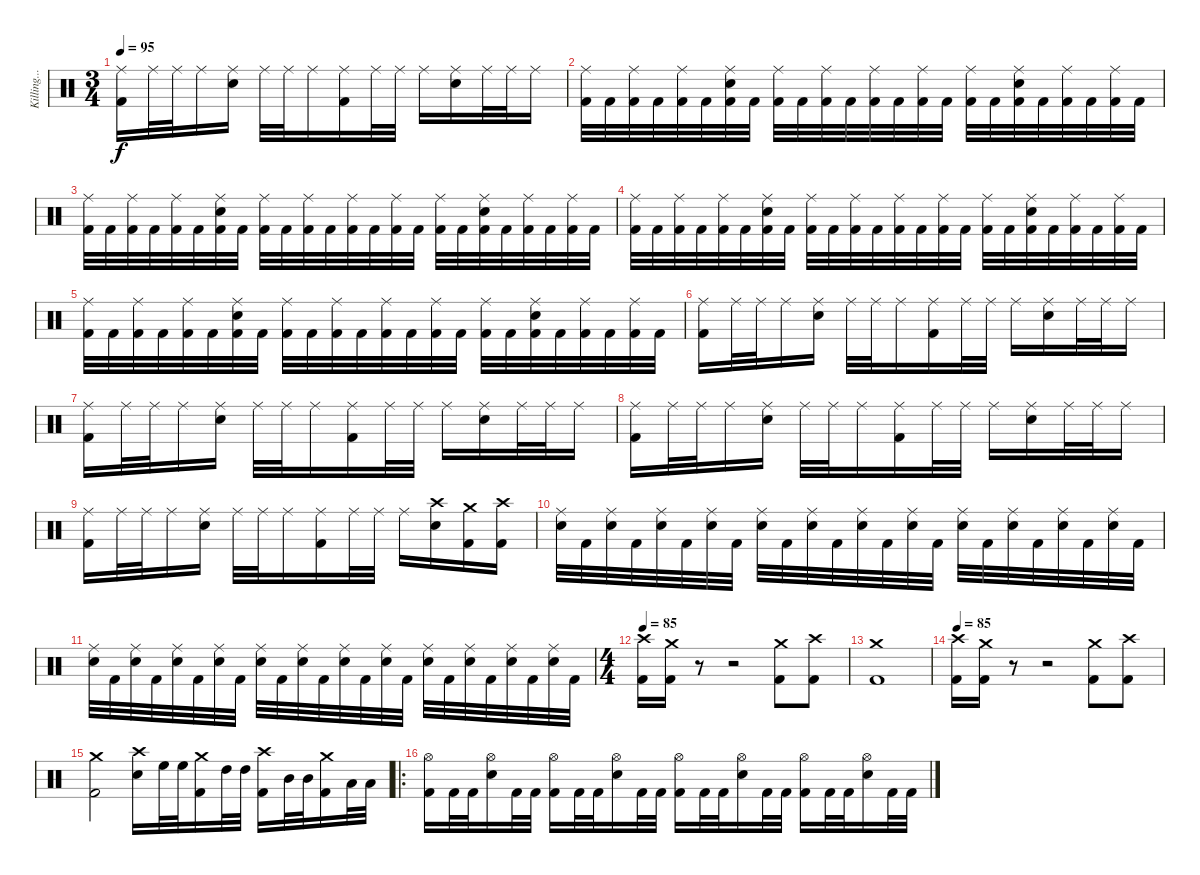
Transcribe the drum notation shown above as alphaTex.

\track ("Killing.....Is His Business" "Killing...") {instrument percussion}
\staff {score}
\articulation defaults
\ts (3 4)
\tempo 95
\clef neutral
\ks c
("Ride (middle)" "Kick (hit) 2").16{dy f} "Ride (middle)".32 "Ride (middle)".32 "Ride (middle)".16 ("Ride (middle)" "Snare (hit) 2").16 "Ride (middle)".32 "Ride (middle)".32 "Ride (middle)".16 ("Ride (middle)" "Kick (hit) 2").16 "Ride (middle)".32 "Ride (middle)".32 "Ride (middle)".16 ("Ride (middle)" "Snare (hit) 2").16 "Ride (middle)".32 "Ride (middle)".32 "Ride (middle)".16 |
("Ride (middle)" "Kick (hit) 2").32 "Kick (hit) 2".32 ("Ride (middle)" "Kick (hit) 2").32 "Kick (hit) 2".32 ("Ride (middle)" "Kick (hit) 2").32 "Kick (hit) 2".32 ("Ride (middle)" "Snare (hit) 2" "Kick (hit) 2").32 "Kick (hit) 2".32 ("Ride (middle)" "Kick (hit) 2").32 "Kick (hit) 2".32 ("Ride (middle)" "Kick (hit) 2").32 "Kick (hit) 2".32 ("Ride (middle)" "Kick (hit) 2").32 "Kick (hit) 2".32 ("Ride (middle)" "Kick (hit) 2").32 "Kick (hit) 2".32 ("Ride (middle)" "Kick (hit) 2").32 "Kick (hit) 2".32 ("Ride (middle)" "Snare (hit) 2" "Kick (hit) 2").32 "Kick (hit) 2".32 ("Ride (middle)" "Kick (hit) 2").32 "Kick (hit) 2".32 ("Ride (middle)" "Kick (hit) 2").32 "Kick (hit) 2".32 |
("Ride (middle)" "Kick (hit) 2").32 "Kick (hit) 2".32 ("Ride (middle)" "Kick (hit) 2").32 "Kick (hit) 2".32 ("Ride (middle)" "Kick (hit) 2").32 "Kick (hit) 2".32 ("Ride (middle)" "Snare (hit) 2" "Kick (hit) 2").32 "Kick (hit) 2".32 ("Ride (middle)" "Kick (hit) 2").32 "Kick (hit) 2".32 ("Ride (middle)" "Kick (hit) 2").32 "Kick (hit) 2".32 ("Ride (middle)" "Kick (hit) 2").32 "Kick (hit) 2".32 ("Ride (middle)" "Kick (hit) 2").32 "Kick (hit) 2".32 ("Ride (middle)" "Kick (hit) 2").32 "Kick (hit) 2".32 ("Ride (middle)" "Snare (hit) 2" "Kick (hit) 2").32 "Kick (hit) 2".32 ("Ride (middle)" "Kick (hit) 2").32 "Kick (hit) 2".32 ("Ride (middle)" "Kick (hit) 2").32 "Kick (hit) 2".32 |
("Ride (middle)" "Kick (hit) 2").32 "Kick (hit) 2".32 ("Ride (middle)" "Kick (hit) 2").32 "Kick (hit) 2".32 ("Ride (middle)" "Kick (hit) 2").32 "Kick (hit) 2".32 ("Ride (middle)" "Snare (hit) 2" "Kick (hit) 2").32 "Kick (hit) 2".32 ("Ride (middle)" "Kick (hit) 2").32 "Kick (hit) 2".32 ("Ride (middle)" "Kick (hit) 2").32 "Kick (hit) 2".32 ("Ride (middle)" "Kick (hit) 2").32 "Kick (hit) 2".32 ("Ride (middle)" "Kick (hit) 2").32 "Kick (hit) 2".32 ("Ride (middle)" "Kick (hit) 2").32 "Kick (hit) 2".32 ("Ride (middle)" "Snare (hit) 2" "Kick (hit) 2").32 "Kick (hit) 2".32 ("Ride (middle)" "Kick (hit) 2").32 "Kick (hit) 2".32 ("Ride (middle)" "Kick (hit) 2").32 "Kick (hit) 2".32 |
("Ride (middle)" "Kick (hit) 2").32 "Kick (hit) 2".32 ("Ride (middle)" "Kick (hit) 2").32 "Kick (hit) 2".32 ("Ride (middle)" "Kick (hit) 2").32 "Kick (hit) 2".32 ("Ride (middle)" "Snare (hit) 2" "Kick (hit) 2").32 "Kick (hit) 2".32 ("Ride (middle)" "Kick (hit) 2").32 "Kick (hit) 2".32 ("Ride (middle)" "Kick (hit) 2").32 "Kick (hit) 2".32 ("Ride (middle)" "Kick (hit) 2").32 "Kick (hit) 2".32 ("Ride (middle)" "Kick (hit) 2").32 "Kick (hit) 2".32 ("Ride (middle)" "Kick (hit) 2").32 "Kick (hit) 2".32 ("Ride (middle)" "Snare (hit) 2" "Kick (hit) 2").32 "Kick (hit) 2".32 ("Ride (middle)" "Kick (hit) 2").32 "Kick (hit) 2".32 ("Ride (middle)" "Kick (hit) 2").32 "Kick (hit) 2".32 |
("Ride (middle)" "Kick (hit) 2").16 "Ride (middle)".32 "Ride (middle)".32 "Ride (middle)".16 ("Ride (middle)" "Snare (hit) 2").16 "Ride (middle)".32 "Ride (middle)".32 "Ride (middle)".16 ("Ride (middle)" "Kick (hit) 2").16 "Ride (middle)".32 "Ride (middle)".32 "Ride (middle)".16 ("Ride (middle)" "Snare (hit) 2").16 "Ride (middle)".32 "Ride (middle)".32 "Ride (middle)".16 |
("Ride (middle)" "Kick (hit) 2").16 "Ride (middle)".32 "Ride (middle)".32 "Ride (middle)".16 ("Ride (middle)" "Snare (hit) 2").16 "Ride (middle)".32 "Ride (middle)".32 "Ride (middle)".16 ("Ride (middle)" "Kick (hit) 2").16 "Ride (middle)".32 "Ride (middle)".32 "Ride (middle)".16 ("Ride (middle)" "Snare (hit) 2").16 "Ride (middle)".32 "Ride (middle)".32 "Ride (middle)".16 |
("Ride (middle)" "Kick (hit) 2").16 "Ride (middle)".32 "Ride (middle)".32 "Ride (middle)".16 ("Ride (middle)" "Snare (hit) 2").16 "Ride (middle)".32 "Ride (middle)".32 "Ride (middle)".16 ("Ride (middle)" "Kick (hit) 2").16 "Ride (middle)".32 "Ride (middle)".32 "Ride (middle)".16 ("Ride (middle)" "Snare (hit) 2").16 "Ride (middle)".32 "Ride (middle)".32 "Ride (middle)".16 |
("Ride (middle)" "Kick (hit) 2").16 "Ride (middle)".32 "Ride (middle)".32 "Ride (middle)".16 ("Ride (middle)" "Snare (hit) 2").16 "Ride (middle)".32 "Ride (middle)".32 "Ride (middle)".16 ("Ride (middle)" "Kick (hit) 2").16 "Ride (middle)".32 "Ride (middle)".32 "Ride (middle)".16 ("Crash high (hit)" "Snare (hit) 2").16 ("Crash medium (hit)" "Kick (hit) 2").16 ("Crash high (hit)" "Kick (hit) 2").16 |
("Ride (middle)" "Snare (hit) 2").32 "Kick (hit) 2".32 ("Ride (middle)" "Snare (hit) 2").32 "Kick (hit) 2".32 ("Ride (middle)" "Snare (hit) 2").32 "Kick (hit) 2".32 ("Ride (middle)" "Snare (hit) 2").32 "Kick (hit) 2".32 ("Ride (middle)" "Snare (hit) 2").32 "Kick (hit) 2".32 ("Ride (middle)" "Snare (hit) 2").32 "Kick (hit) 2".32 ("Ride (middle)" "Snare (hit) 2").32 "Kick (hit) 2".32 ("Ride (middle)" "Snare (hit) 2").32 "Kick (hit) 2".32 ("Ride (middle)" "Snare (hit) 2").32 "Kick (hit) 2".32 ("Ride (middle)" "Snare (hit) 2").32 "Kick (hit) 2".32 ("Ride (middle)" "Snare (hit) 2").32 "Kick (hit) 2".32 ("Ride (middle)" "Snare (hit) 2").32 "Kick (hit) 2".32 |
("Ride (middle)" "Snare (hit) 2").32 "Kick (hit) 2".32 ("Ride (middle)" "Snare (hit) 2").32 "Kick (hit) 2".32 ("Ride (middle)" "Snare (hit) 2").32 "Kick (hit) 2".32 ("Ride (middle)" "Snare (hit) 2").32 "Kick (hit) 2".32 ("Ride (middle)" "Snare (hit) 2").32 "Kick (hit) 2".32 ("Ride (middle)" "Snare (hit) 2").32 "Kick (hit) 2".32 ("Ride (middle)" "Snare (hit) 2").32 "Kick (hit) 2".32 ("Ride (middle)" "Snare (hit) 2").32 "Kick (hit) 2".32 ("Ride (middle)" "Snare (hit) 2").32 "Kick (hit) 2".32 ("Ride (middle)" "Snare (hit) 2").32 "Kick (hit) 2".32 ("Ride (middle)" "Snare (hit) 2").32 "Kick (hit) 2".32 ("Ride (middle)" "Snare (hit) 2").32 "Kick (hit) 2".32 |
\ts (4 4)
\tempo 85
("Crash high (hit)" "Kick (hit) 2").16 ("Crash medium (hit)" "Kick (hit) 2").16 r.8 r.2 ("Crash medium (hit)" "Kick (hit) 2").8 ("Crash high (hit)" "Kick (hit) 2").8 |
("Crash medium (hit)" "Kick (hit) 2").1 |
\tempo 85
("Crash high (hit)" "Kick (hit) 2").16 ("Crash medium (hit)" "Kick (hit) 2").16 r.8 r.2 ("Crash medium (hit)" "Kick (hit) 2").8 ("Crash high (hit)" "Kick (hit) 2").8 |
("Crash medium (hit)" "Kick (hit) 2").2 ("Crash high (hit)" "Electric Snare (hit)").16 "High Floor Tom (hit)".32 "High Floor Tom (hit)".32 ("Crash medium (hit)" "Kick (hit) 2").16 "High Tom (hit)".32 "High Tom (hit)".32 ("Crash high (hit)" "Kick (hit) 2").16 "Mid Tom (hit)".32 "Mid Tom (hit)".32 ("Crash medium (hit)" "Kick (hit) 2").16 "Low Tom (hit)".32 "Low Tom (hit)".32 |
\ro
("Hi-Hat (open)" "Kick (hit) 2").16 "Kick (hit) 2".32 "Kick (hit) 2".32 ("Hi-Hat (open)" "Snare (hit) 2").16 "Kick (hit) 2".32 "Kick (hit) 2".32 ("Hi-Hat (open)" "Kick (hit) 2").16 "Kick (hit) 2".32 "Kick (hit) 2".32 ("Hi-Hat (open)" "Snare (hit) 2").16 "Kick (hit) 2".32 "Kick (hit) 2".32 ("Hi-Hat (open)" "Kick (hit) 2").16 "Kick (hit) 2".32 "Kick (hit) 2".32 ("Hi-Hat (open)" "Snare (hit) 2").16 "Kick (hit) 2".32 "Kick (hit) 2".32 ("Hi-Hat (open)" "Kick (hit) 2").16 "Kick (hit) 2".32 "Kick (hit) 2".32 ("Hi-Hat (open)" "Snare (hit) 2").16 "Kick (hit) 2".32 "Kick (hit) 2".32
